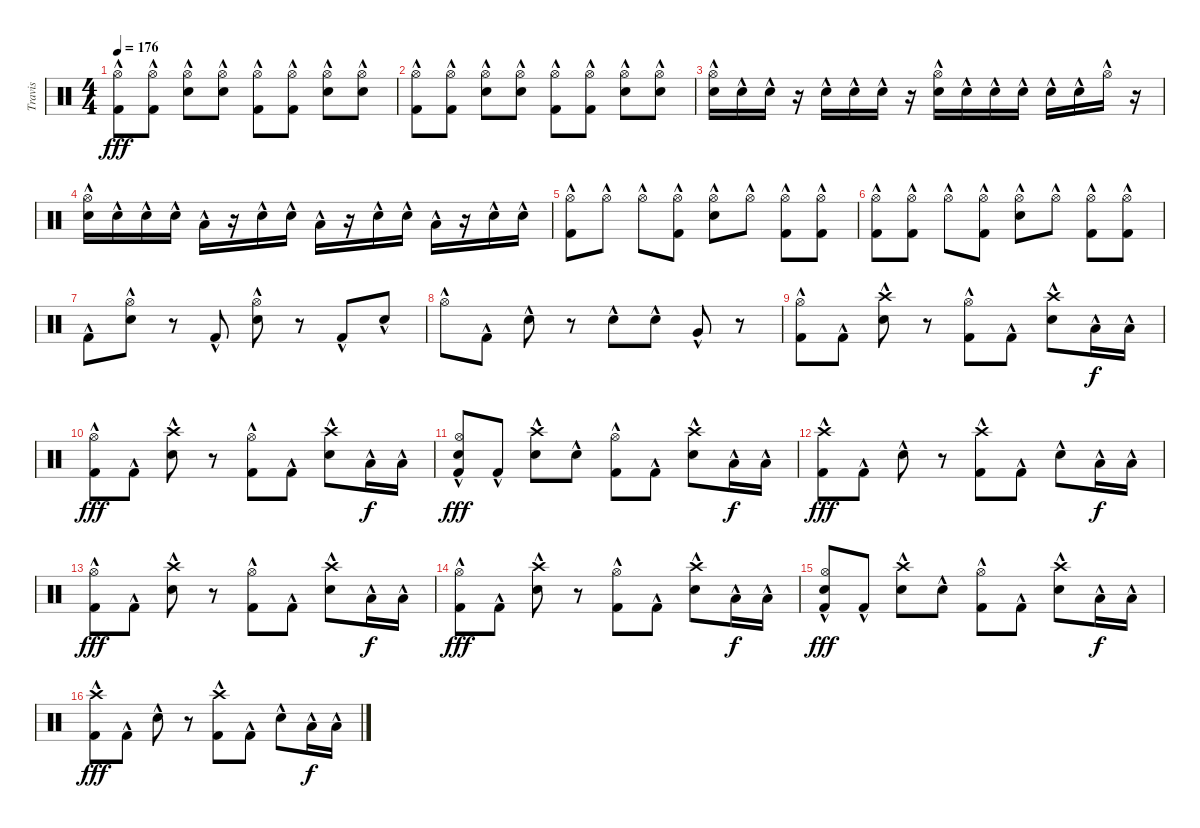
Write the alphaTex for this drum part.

\track ("Travis" "Travis") {instrument percussion}
\staff {score}
\articulation defaults
\ts (4 4)
\tempo 176
\clef neutral
\ks c
("Kick (hit) 2"{hac} "Hi-Hat (open)"{hac}).8{dy fff} ("Kick (hit) 2"{hac} "Hi-Hat (open)"{hac}).8 ("Snare (hit) 2"{hac} "Hi-Hat (open)"{hac}).8 ("Snare (hit) 2"{hac} "Hi-Hat (open)"{hac}).8 ("Kick (hit) 2"{hac} "Hi-Hat (open)"{hac}).8 ("Kick (hit) 2"{hac} "Hi-Hat (open)"{hac}).8 ("Snare (hit) 2"{hac} "Hi-Hat (open)"{hac}).8 ("Snare (hit) 2"{hac} "Hi-Hat (open)"{hac}).8 |
("Kick (hit) 2"{hac} "Hi-Hat (open)"{hac}).8 ("Kick (hit) 2"{hac} "Hi-Hat (open)"{hac}).8 ("Snare (hit) 2"{hac} "Hi-Hat (open)"{hac}).8 ("Snare (hit) 2"{hac} "Hi-Hat (open)"{hac}).8 ("Kick (hit) 2"{hac} "Hi-Hat (open)"{hac}).8 ("Kick (hit) 2"{hac} "Hi-Hat (open)"{hac}).8 ("Snare (hit) 2"{hac} "Hi-Hat (open)"{hac}).8 ("Snare (hit) 2"{hac} "Hi-Hat (open)"{hac}).8 |
("Snare (hit) 2"{hac} "Hi-Hat (open)"{hac}).16 "Snare (hit) 2"{hac}.16 "Snare (hit) 2"{hac}.16 r.16 "Snare (hit) 2"{hac}.16 "Snare (hit) 2"{hac}.16 "Snare (hit) 2"{hac}.16 r.16 ("Snare (hit) 2"{hac} "Hi-Hat (open)"{hac}).16 "Snare (hit) 2"{hac}.16 "Snare (hit) 2"{hac}.16 "Snare (hit) 2"{hac}.16 "Snare (hit) 2"{hac}.16 "Snare (hit) 2"{hac}.16 "Hi-Hat (open)"{hac}.16 r.16 |
("Snare (hit) 2"{hac} "Hi-Hat (open)"{hac}).16 "Snare (hit) 2"{hac}.16 "Snare (hit) 2"{hac}.16 "Snare (hit) 2"{hac}.16 "Low Tom (hit)"{hac}.16 r.16 "Snare (hit) 2"{hac}.16 "Snare (hit) 2"{hac}.16 "Low Tom (hit)"{hac}.16 r.16 "Snare (hit) 2"{hac}.16 "Snare (hit) 2"{hac}.16 "Low Tom (hit)"{hac}.16 r.16 "Snare (hit) 2"{hac}.16 "Snare (hit) 2"{hac}.16 |
("Kick (hit) 2"{hac} "Hi-Hat (open)"{hac}).8 "Hi-Hat (open)"{hac}.8 "Hi-Hat (open)"{hac}.8 ("Kick (hit) 2"{hac} "Hi-Hat (open)"{hac}).8 ("Snare (hit) 2"{hac} "Hi-Hat (open)"{hac}).8 "Hi-Hat (open)"{hac}.8 ("Kick (hit) 2"{hac} "Hi-Hat (open)"{hac}).8 ("Kick (hit) 2"{hac} "Hi-Hat (open)"{hac}).8 |
("Kick (hit) 2"{hac} "Hi-Hat (open)"{hac}).8 ("Kick (hit) 2"{hac} "Hi-Hat (open)"{hac}).8 "Hi-Hat (open)"{hac}.8 ("Kick (hit) 2"{hac} "Hi-Hat (open)"{hac}).8 ("Snare (hit) 2"{hac} "Hi-Hat (open)"{hac}).8 "Hi-Hat (open)"{hac}.8 ("Kick (hit) 2"{hac} "Hi-Hat (open)"{hac}).8 ("Kick (hit) 2"{hac} "Hi-Hat (open)"{hac}).8 |
"Kick (hit) 2"{hac}.8 ("Snare (hit) 2"{hac} "Hi-Hat (open)"{hac}).8 r.8 "Kick (hit) 2"{hac}.8 ("Snare (hit) 2"{hac} "Hi-Hat (open)"{hac}).8 r.8 "Kick (hit) 2"{hac}.8 "Snare (hit) 2"{hac}.8 |
"Hi-Hat (open)"{hac}.8 "Kick (hit) 2"{hac}.8 "Snare (hit) 2"{hac}.8 r.8 "Snare (hit) 2"{hac}.8 "Snare (hit) 2"{hac}.8 "Very Low Tom (hit)"{hac}.8 r.8 |
("Kick (hit) 2"{hac} "Hi-Hat (open)"{hac}).8 "Kick (hit) 2"{hac}.8 ("Snare (hit) 2"{hac} "Crash high (hit)"{hac}).8 r.8 ("Kick (hit) 2"{hac} "Hi-Hat (open)"{hac}).8 "Kick (hit) 2"{hac}.8 ("Snare (hit) 2"{hac} "Crash high (hit)"{hac}).8 "Low Tom (hit)"{hac}.16{dy f} "Low Tom (hit)"{hac}.16 |
("Kick (hit) 2"{hac} "Hi-Hat (open)"{hac}).8{dy fff} "Kick (hit) 2"{hac}.8 ("Snare (hit) 2"{hac} "Crash high (hit)"{hac}).8 r.8 ("Kick (hit) 2"{hac} "Hi-Hat (open)"{hac}).8 "Kick (hit) 2"{hac}.8 ("Snare (hit) 2"{hac} "Crash high (hit)"{hac}).8 "Low Tom (hit)"{hac}.16{dy f} "Low Tom (hit)"{hac}.16 |
("Kick (hit) 2"{hac} "Snare (hit) 2"{hac} "Hi-Hat (open)"{hac}).8{dy fff} "Kick (hit) 2"{hac}.8 ("Snare (hit) 2"{hac} "Crash high (hit)"{hac}).8 "Snare (hit) 2"{hac}.8 ("Kick (hit) 2"{hac} "Hi-Hat (open)"{hac}).8 "Kick (hit) 2"{hac}.8 ("Snare (hit) 2"{hac} "Crash high (hit)"{hac}).8 "Low Tom (hit)"{hac}.16{dy f} "Low Tom (hit)"{hac}.16 |
("Kick (hit) 2"{hac} "Crash high (hit)"{hac}).8{dy fff} "Kick (hit) 2"{hac}.8 "Snare (hit) 2"{hac}.8 r.8 ("Kick (hit) 2"{hac} "Crash high (hit)"{hac}).8 "Kick (hit) 2"{hac}.8 "Snare (hit) 2"{hac}.8 "Low Tom (hit)"{hac}.16{dy f} "Low Tom (hit)"{hac}.16 |
("Kick (hit) 2"{hac} "Hi-Hat (open)"{hac}).8{dy fff} "Kick (hit) 2"{hac}.8 ("Snare (hit) 2"{hac} "Crash high (hit)"{hac}).8 r.8 ("Kick (hit) 2"{hac} "Hi-Hat (open)"{hac}).8 "Kick (hit) 2"{hac}.8 ("Snare (hit) 2"{hac} "Crash high (hit)"{hac}).8 "Low Tom (hit)"{hac}.16{dy f} "Low Tom (hit)"{hac}.16 |
("Kick (hit) 2"{hac} "Hi-Hat (open)"{hac}).8{dy fff} "Kick (hit) 2"{hac}.8 ("Snare (hit) 2"{hac} "Crash high (hit)"{hac}).8 r.8 ("Kick (hit) 2"{hac} "Hi-Hat (open)"{hac}).8 "Kick (hit) 2"{hac}.8 ("Snare (hit) 2"{hac} "Crash high (hit)"{hac}).8 "Low Tom (hit)"{hac}.16{dy f} "Low Tom (hit)"{hac}.16 |
("Kick (hit) 2"{hac} "Snare (hit) 2"{hac} "Hi-Hat (open)"{hac}).8{dy fff} "Kick (hit) 2"{hac}.8 ("Snare (hit) 2"{hac} "Crash high (hit)"{hac}).8 "Snare (hit) 2"{hac}.8 ("Kick (hit) 2"{hac} "Hi-Hat (open)"{hac}).8 "Kick (hit) 2"{hac}.8 ("Snare (hit) 2"{hac} "Crash high (hit)"{hac}).8 "Low Tom (hit)"{hac}.16{dy f} "Low Tom (hit)"{hac}.16 |
("Kick (hit) 2"{hac} "Crash high (hit)"{hac}).8{dy fff} "Kick (hit) 2"{hac}.8 "Snare (hit) 2"{hac}.8 r.8 ("Kick (hit) 2"{hac} "Crash high (hit)"{hac}).8 "Kick (hit) 2"{hac}.8 "Snare (hit) 2"{hac}.8 "Low Tom (hit)"{hac}.16{dy f} "Low Tom (hit)"{hac}.16
